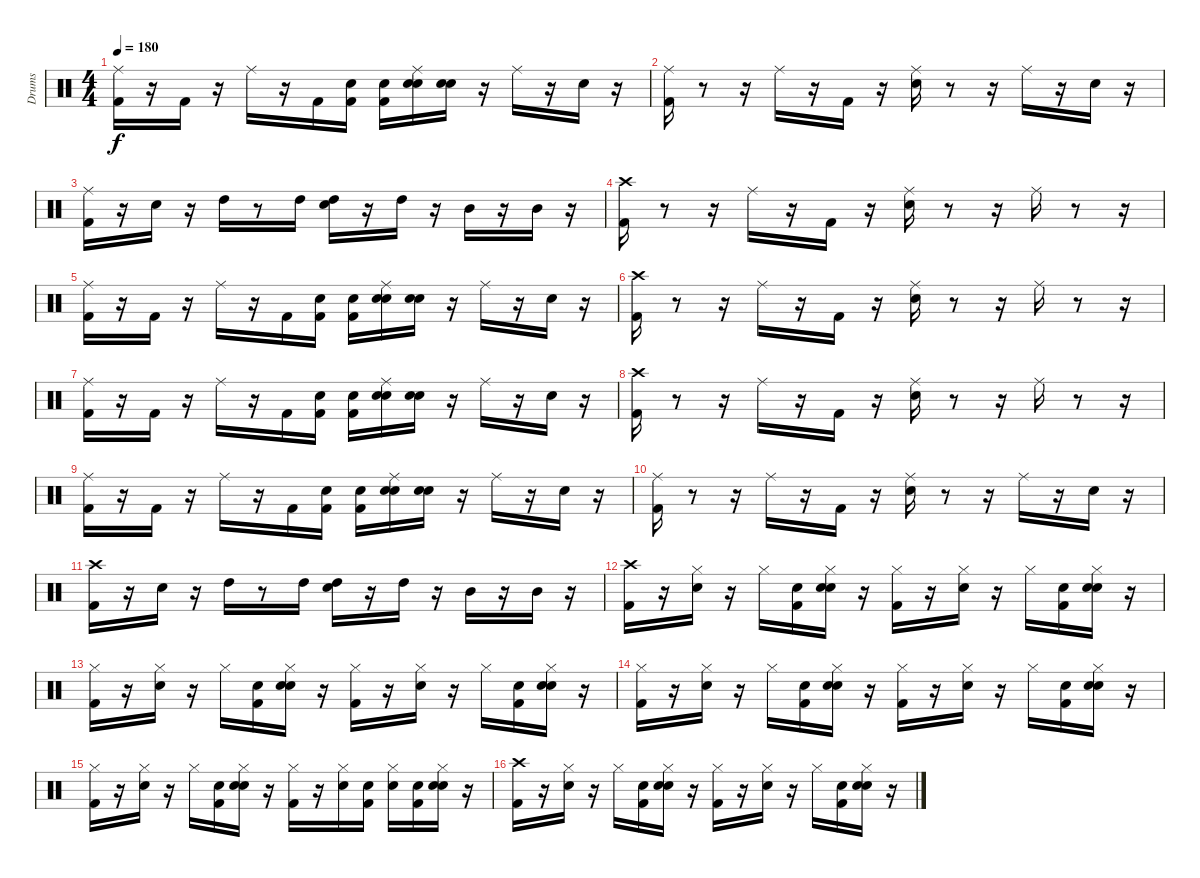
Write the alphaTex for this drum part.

\track ("Drums" "Drums") {instrument percussion}
\staff {score}
\articulation defaults
\ts (4 4)
\tempo 180
\clef neutral
\ks c
("Kick (hit) 2" "Ride (middle)").16{dy f} r.16 "Kick (hit) 2".16 r.16 "Ride (middle)".16 r.16 "Kick (hit) 2".16 ("Snare (hit)" "Kick (hit) 2").16 ("Snare (hit)" "Kick (hit) 2").16 ("Snare (hit)" "Ride (middle)" "Snare (hit) 2").16 ("Snare (hit)" "Snare (hit) 2").16 r.16 "Ride (middle)".16 r.16 "Snare (hit) 2".16 r.16 |
("Ride (middle)" "Kick (hit) 2").16 r.8 r.16 "Ride (middle)".16 r.16 "Kick (hit) 2".16 r.16 ("Ride (middle)" "Snare (hit) 2").16 r.8 r.16 "Ride (middle)".16 r.16 "Snare (hit) 2".16 r.16 |
("Ride (middle)" "Kick (hit) 2").16 r.16 "Snare (hit) 2".16 r.16 "High Tom (hit)".16 r.8 "High Tom (hit)".16 ("Snare (hit)" "High Tom (hit)").16 r.16 "High Tom (hit)".16 r.16 "Mid Tom (hit)".16 r.16 "Mid Tom (hit)".16 r.16 |
("Crash high (hit)" "Kick (hit) 2").16 r.8 r.16 "Ride (middle)".16 r.16 "Kick (hit) 2".16 r.16 ("Snare (hit) 2" "Ride (middle)").16 r.8 r.16 "Ride (middle)".16 r.8 r.16 |
("Kick (hit) 2" "Ride (middle)").16 r.16 "Kick (hit) 2".16 r.16 "Ride (middle)".16 r.16 "Kick (hit) 2".16 ("Snare (hit)" "Kick (hit) 2").16 ("Snare (hit)" "Kick (hit) 2").16 ("Snare (hit)" "Ride (middle)" "Snare (hit) 2").16 ("Snare (hit)" "Snare (hit) 2").16 r.16 "Ride (middle)".16 r.16 "Snare (hit) 2".16 r.16 |
("Crash high (hit)" "Kick (hit) 2").16 r.8 r.16 "Ride (middle)".16 r.16 "Kick (hit) 2".16 r.16 ("Snare (hit) 2" "Ride (middle)").16 r.8 r.16 "Ride (middle)".16 r.8 r.16 |
("Kick (hit) 2" "Ride (middle)").16 r.16 "Kick (hit) 2".16 r.16 "Ride (middle)".16 r.16 "Kick (hit) 2".16 ("Snare (hit)" "Kick (hit) 2").16 ("Snare (hit)" "Kick (hit) 2").16 ("Snare (hit)" "Ride (middle)" "Snare (hit) 2").16 ("Snare (hit)" "Snare (hit) 2").16 r.16 "Ride (middle)".16 r.16 "Snare (hit) 2".16 r.16 |
("Crash high (hit)" "Kick (hit) 2").16 r.8 r.16 "Ride (middle)".16 r.16 "Kick (hit) 2".16 r.16 ("Snare (hit) 2" "Ride (middle)").16 r.8 r.16 "Ride (middle)".16 r.8 r.16 |
("Kick (hit) 2" "Ride (middle)").16 r.16 "Kick (hit) 2".16 r.16 "Ride (middle)".16 r.16 "Kick (hit) 2".16 ("Snare (hit)" "Kick (hit) 2").16 ("Snare (hit)" "Kick (hit) 2").16 ("Snare (hit)" "Ride (middle)" "Snare (hit) 2").16 ("Snare (hit)" "Snare (hit) 2").16 r.16 "Ride (middle)".16 r.16 "Snare (hit) 2".16 r.16 |
("Ride (middle)" "Kick (hit) 2").16 r.8 r.16 "Ride (middle)".16 r.16 "Kick (hit) 2".16 r.16 ("Ride (middle)" "Snare (hit) 2").16 r.8 r.16 "Ride (middle)".16 r.16 "Snare (hit) 2".16 r.16 |
("Kick (hit) 2" "Crash high (hit)").16 r.16 "Snare (hit) 2".16 r.16 "High Tom (hit)".16 r.8 "High Tom (hit)".16 ("Snare (hit)" "High Tom (hit)").16 r.16 "High Tom (hit)".16 r.16 "Mid Tom (hit)".16 r.16 "Mid Tom (hit)".16 r.16 |
("Crash high (hit)" "Kick (hit) 2").16 r.16 ("Snare (hit) 2" "Hi-Hat (closed)").16 r.16 "Hi-Hat (closed)".16 ("Snare (hit)" "Kick (hit) 2").16 ("Snare (hit)" "Snare (hit) 2" "Hi-Hat (closed)").16 r.16 ("Kick (hit) 2" "Hi-Hat (closed)").16 r.16 ("Snare (hit) 2" "Hi-Hat (closed)").16 r.16 "Hi-Hat (closed)".16 ("Snare (hit)" "Kick (hit) 2").16 ("Snare (hit)" "Snare (hit) 2" "Hi-Hat (closed)").16 r.16 |
("Kick (hit) 2" "Hi-Hat (closed)").16 r.16 ("Snare (hit) 2" "Hi-Hat (closed)").16 r.16 "Hi-Hat (closed)".16 ("Snare (hit)" "Kick (hit) 2").16 ("Snare (hit)" "Snare (hit) 2" "Hi-Hat (closed)").16 r.16 ("Kick (hit) 2" "Hi-Hat (closed)").16 r.16 ("Snare (hit) 2" "Hi-Hat (closed)").16 r.16 "Hi-Hat (closed)".16 ("Snare (hit)" "Kick (hit) 2").16 ("Snare (hit)" "Snare (hit) 2" "Hi-Hat (closed)").16 r.16 |
("Kick (hit) 2" "Hi-Hat (closed)").16 r.16 ("Snare (hit) 2" "Hi-Hat (closed)").16 r.16 "Hi-Hat (closed)".16 ("Snare (hit)" "Kick (hit) 2").16 ("Snare (hit)" "Snare (hit) 2" "Hi-Hat (closed)").16 r.16 ("Kick (hit) 2" "Hi-Hat (closed)").16 r.16 ("Snare (hit) 2" "Hi-Hat (closed)").16 r.16 "Hi-Hat (closed)".16 ("Snare (hit)" "Kick (hit) 2").16 ("Snare (hit)" "Snare (hit) 2" "Hi-Hat (closed)").16 r.16 |
("Kick (hit) 2" "Hi-Hat (closed)").16 r.16 ("Snare (hit) 2" "Hi-Hat (closed)").16 r.16 "Hi-Hat (closed)".16 ("Snare (hit)" "Kick (hit) 2").16 ("Snare (hit)" "Snare (hit) 2" "Hi-Hat (closed)").16 r.16 ("Kick (hit) 2" "Hi-Hat (closed)").16 r.16 ("Snare (hit) 2" "Hi-Hat (closed)").16 ("Snare (hit)" "Kick (hit) 2").16 ("Snare (hit)" "Hi-Hat (closed)").16 ("Snare (hit)" "Kick (hit) 2").16 ("Snare (hit)" "Snare (hit) 2" "Hi-Hat (closed)").16 r.16 |
("Kick (hit) 2" "Crash high (hit)").16 r.16 ("Snare (hit) 2" "Hi-Hat (closed)").16 r.16 "Hi-Hat (closed)".16 ("Snare (hit)" "Kick (hit) 2").16 ("Snare (hit)" "Snare (hit) 2" "Hi-Hat (closed)").16 r.16 ("Kick (hit) 2" "Hi-Hat (closed)").16 r.16 ("Snare (hit) 2" "Hi-Hat (closed)").16 r.16 "Hi-Hat (closed)".16 ("Snare (hit)" "Kick (hit) 2").16 ("Snare (hit)" "Snare (hit) 2" "Hi-Hat (closed)").16 r.16
